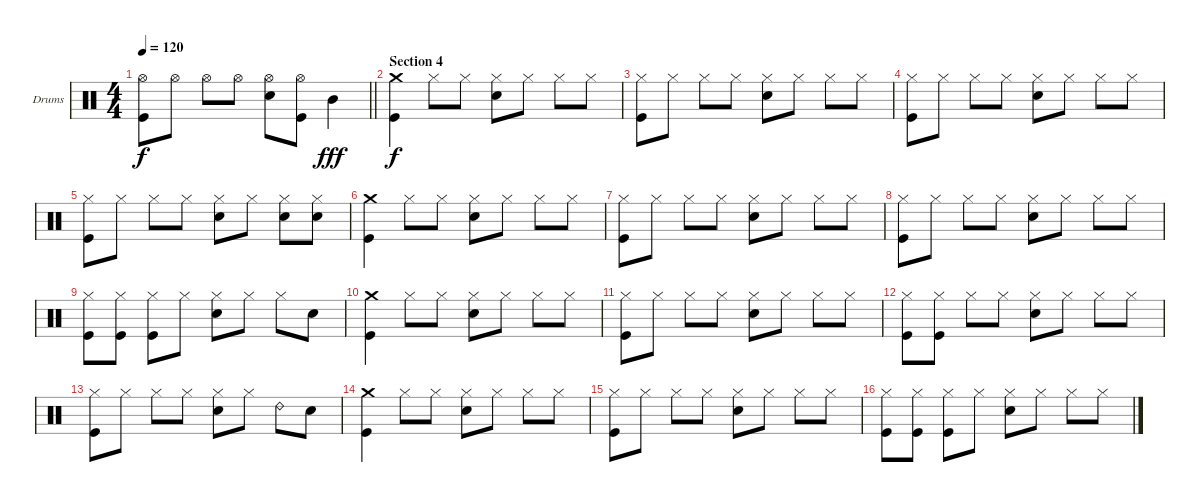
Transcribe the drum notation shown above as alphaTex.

\defaultSystemsLayout 4
\bracketExtendMode groupsimilarinstruments
\firstSystemTrackNameOrientation horizontal
\otherSystemsTrackNameOrientation horizontal
\track ("Drums" "Drums") {instrument percussion}
\staff {score}
\articulation defaults
\ts (4 4)
\tempo 120
\clef neutral
\barLineRight lightlight
\ks c
("Hi-Hat (open)" "Kick (hit)").8{dy f} "Hi-Hat (open)".8 "Hi-Hat (open)".8 "Hi-Hat (open)".8 ("Hi-Hat (open)" "Snare (hit) 2").8 ("Hi-Hat (open)" "Kick (hit)").8 "Mid Tom (hit)".4{dy fff} |
\section ("" "Section 4")
("Kick (hit)" "Crash medium (hit)").4{dy f} "Hi-Hat (closed)".8 "Hi-Hat (closed)".8 ("Snare (hit) 2" "Hi-Hat (closed)").8 "Hi-Hat (closed)".8 "Hi-Hat (closed)".8 "Hi-Hat (closed)".8 |
("Hi-Hat (closed)" "Kick (hit)").8 "Hi-Hat (closed)".8 "Hi-Hat (closed)".8 "Hi-Hat (closed)".8 ("Hi-Hat (closed)" "Snare (hit) 2").8 "Hi-Hat (closed)".8 "Hi-Hat (closed)".8 "Hi-Hat (closed)".8 |
("Hi-Hat (closed)" "Kick (hit)").8 "Hi-Hat (closed)".8 "Hi-Hat (closed)".8 "Hi-Hat (closed)".8 ("Hi-Hat (closed)" "Snare (hit) 2").8 "Hi-Hat (closed)".8 "Hi-Hat (closed)".8 "Hi-Hat (closed)".8 |
("Hi-Hat (closed)" "Kick (hit)").8 "Hi-Hat (closed)".8 "Hi-Hat (closed)".8 "Hi-Hat (closed)".8 ("Hi-Hat (closed)" "Snare (hit) 2").8 "Hi-Hat (closed)".8 ("Hi-Hat (closed)" "Snare (hit) 2").8 ("Hi-Hat (closed)" "Snare (hit) 2").8 |
("Kick (hit)" "Crash medium (hit)").4 "Hi-Hat (closed)".8 "Hi-Hat (closed)".8 ("Hi-Hat (closed)" "Snare (hit) 2").8 "Hi-Hat (closed)".8 "Hi-Hat (closed)".8 "Hi-Hat (closed)".8 |
("Hi-Hat (closed)" "Kick (hit)").8 "Hi-Hat (closed)".8 "Hi-Hat (closed)".8 "Hi-Hat (closed)".8 ("Hi-Hat (closed)" "Snare (hit) 2").8 "Hi-Hat (closed)".8 "Hi-Hat (closed)".8 "Hi-Hat (closed)".8 |
("Hi-Hat (closed)" "Kick (hit)").8 "Hi-Hat (closed)".8 "Hi-Hat (closed)".8 "Hi-Hat (closed)".8 ("Hi-Hat (closed)" "Snare (hit) 2").8 "Hi-Hat (closed)".8 "Hi-Hat (closed)".8 "Hi-Hat (closed)".8 |
("Hi-Hat (closed)" "Kick (hit)").8 ("Hi-Hat (closed)" "Kick (hit)").8 ("Hi-Hat (closed)" "Kick (hit)").8 "Hi-Hat (closed)".8 ("Hi-Hat (closed)" "Snare (hit) 2").8 "Hi-Hat (closed)".8 "Hi-Hat (closed)".8 "Snare (hit) 2".8 |
("Kick (hit)" "Crash medium (hit)").4 "Hi-Hat (closed)".8 "Hi-Hat (closed)".8 ("Hi-Hat (closed)" "Snare (hit) 2").8 "Hi-Hat (closed)".8 "Hi-Hat (closed)".8 "Hi-Hat (closed)".8 |
("Hi-Hat (closed)" "Kick (hit)").8 "Hi-Hat (closed)".8 "Hi-Hat (closed)".8 "Hi-Hat (closed)".8 ("Hi-Hat (closed)" "Snare (hit) 2").8 "Hi-Hat (closed)".8 "Hi-Hat (closed)".8 "Hi-Hat (closed)".8 |
("Hi-Hat (closed)" "Kick (hit)").8 ("Hi-Hat (closed)" "Kick (hit)").8 "Hi-Hat (closed)".8 "Hi-Hat (closed)".8 ("Hi-Hat (closed)" "Snare (hit) 2").8 "Hi-Hat (closed)".8 "Hi-Hat (closed)".8 "Hi-Hat (closed)".8 |
("Hi-Hat (closed)" "Kick (hit)").8 "Hi-Hat (closed)".8 "Hi-Hat (closed)".8 "Hi-Hat (closed)".8 ("Hi-Hat (closed)" "Snare (hit) 2").8 "Hi-Hat (closed)".8 "Ride (bell) 2".8 "Snare (hit) 2".8 |
("Kick (hit)" "Crash medium (hit)").4 "Hi-Hat (closed)".8 "Hi-Hat (closed)".8 ("Hi-Hat (closed)" "Snare (hit) 2").8 "Hi-Hat (closed)".8 "Hi-Hat (closed)".8 "Hi-Hat (closed)".8 |
("Hi-Hat (closed)" "Kick (hit)").8 "Hi-Hat (closed)".8 "Hi-Hat (closed)".8 "Hi-Hat (closed)".8 ("Hi-Hat (closed)" "Snare (hit) 2").8 "Hi-Hat (closed)".8 "Hi-Hat (closed)".8 "Hi-Hat (closed)".8 |
("Hi-Hat (closed)" "Kick (hit)").8 ("Hi-Hat (closed)" "Kick (hit)").8 ("Hi-Hat (closed)" "Kick (hit)").8 "Hi-Hat (closed)".8 ("Hi-Hat (closed)" "Snare (hit) 2").8 "Hi-Hat (closed)".8 "Hi-Hat (closed)".8 "Hi-Hat (closed)".8
